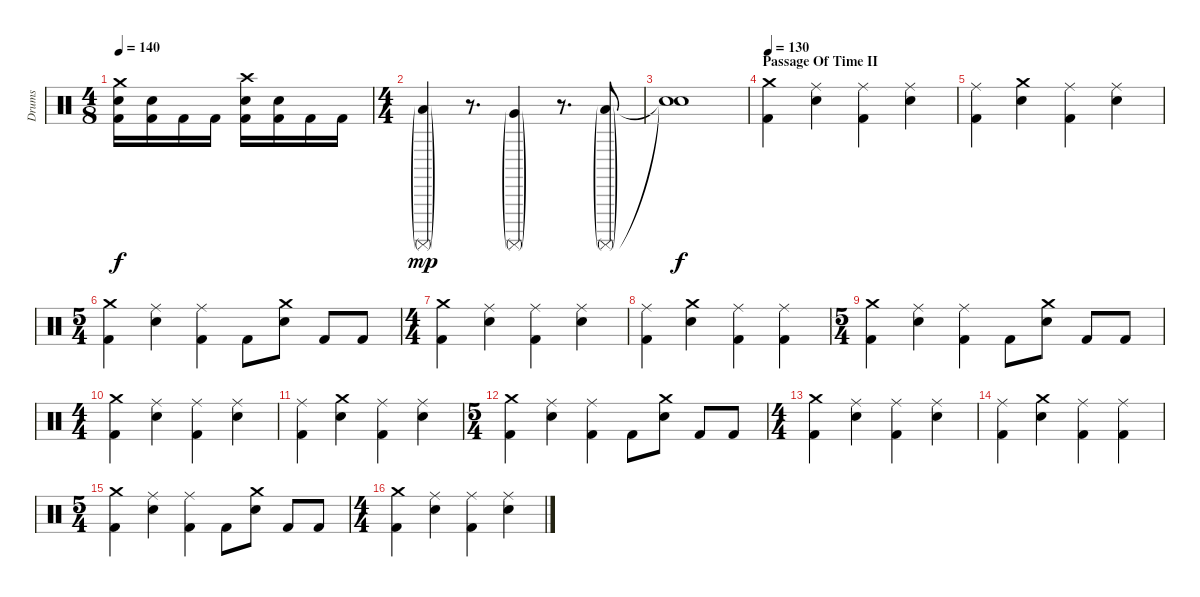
\track ("Drums" "Drums") {instrument percussion}
\staff {score}
\articulation defaults
\ts (4 8)
\tempo 140
\clef neutral
\ks c
("Crash medium (hit)" "Electric Snare (hit)" "Kick (hit) 2").16{dy f} ("Electric Snare (hit)" "Kick (hit) 2").16 "Kick (hit) 2".16 "Kick (hit) 2".16 ("Crash high (hit)" "Electric Snare (hit)" "Kick (hit) 2").16 ("Electric Snare (hit)" "Kick (hit) 2").16 "Kick (hit) 2".16 "Kick (hit) 2".16 |
\ts (4 4)
("Surdo (mute)"{g} "Low Tom (hit)"{g}).4{dy mp} r.8{d} ("Surdo (mute)"{g} "Very Low Tom (hit)"{g}).4 r.8{d} ("Surdo (mute)"{g} "Low Floor Tom (hit)"{g}).8 |
("Snare (hit)"{t} "Snare (hit)"{t}).1{dy f} |
\section ("" "Passage Of Time II")
\tempo 130
("Crash medium (hit)" "Kick (hit) 2").4 ("Ride (middle)" "Electric Snare (hit)").4 ("Ride (middle)" "Kick (hit) 2").4 ("Ride (middle)" "Electric Snare (hit)").4 |
("Ride (middle)" "Kick (hit) 2").4 ("Crash medium (hit)" "Electric Snare (hit)").4 ("Ride (middle)" "Kick (hit) 2").4 ("Ride (middle)" "Electric Snare (hit)").4 |
\ts (5 4)
("Crash medium (hit)" "Kick (hit) 2").4 ("Ride (middle)" "Electric Snare (hit)").4 ("Ride (middle)" "Kick (hit) 2").4 "Kick (hit) 2".8 ("Crash medium (hit)" "Electric Snare (hit)").8 "Kick (hit) 2".8 "Kick (hit) 2".8 |
\ts (4 4)
("Crash medium (hit)" "Kick (hit) 2").4 ("Ride (middle)" "Electric Snare (hit)").4 ("Ride (middle)" "Kick (hit) 2").4 ("Ride (middle)" "Electric Snare (hit)").4 |
("Ride (middle)" "Kick (hit) 2").4 ("Crash medium (hit)" "Electric Snare (hit)").4 ("Ride (middle)" "Kick (hit) 2").4 ("Ride (middle)" "Kick (hit) 2").4 |
\ts (5 4)
("Crash medium (hit)" "Kick (hit) 2").4 ("Ride (middle)" "Electric Snare (hit)").4 ("Ride (middle)" "Kick (hit) 2").4 "Kick (hit) 2".8 ("Crash medium (hit)" "Electric Snare (hit)").8 "Kick (hit) 2".8 "Kick (hit) 2".8 |
\ts (4 4)
\section ("" "")
("Crash medium (hit)" "Kick (hit) 2").4 ("Ride (middle)" "Electric Snare (hit)").4 ("Ride (middle)" "Kick (hit) 2").4 ("Ride (middle)" "Electric Snare (hit)").4 |
("Ride (middle)" "Kick (hit) 2").4 ("Crash medium (hit)" "Electric Snare (hit)").4 ("Ride (middle)" "Kick (hit) 2").4 ("Ride (middle)" "Electric Snare (hit)").4 |
\ts (5 4)
("Crash medium (hit)" "Kick (hit) 2").4 ("Ride (middle)" "Electric Snare (hit)").4 ("Ride (middle)" "Kick (hit) 2").4 "Kick (hit) 2".8 ("Crash medium (hit)" "Electric Snare (hit)").8 "Kick (hit) 2".8 "Kick (hit) 2".8 |
\ts (4 4)
("Crash medium (hit)" "Kick (hit) 2").4 ("Ride (middle)" "Electric Snare (hit)").4 ("Ride (middle)" "Kick (hit) 2").4 ("Ride (middle)" "Electric Snare (hit)").4 |
("Ride (middle)" "Kick (hit) 2").4 ("Crash medium (hit)" "Electric Snare (hit)").4 ("Ride (middle)" "Kick (hit) 2").4 ("Ride (middle)" "Kick (hit) 2").4 |
\ts (5 4)
("Crash medium (hit)" "Kick (hit) 2").4 ("Ride (middle)" "Electric Snare (hit)").4 ("Ride (middle)" "Kick (hit) 2").4 "Kick (hit) 2".8 ("Crash medium (hit)" "Electric Snare (hit)").8 "Kick (hit) 2".8 "Kick (hit) 2".8 |
\ts (4 4)
("Crash medium (hit)" "Kick (hit) 2").4 ("Ride (middle)" "Electric Snare (hit)").4 ("Ride (middle)" "Kick (hit) 2").4 ("Ride (middle)" "Electric Snare (hit)").4
